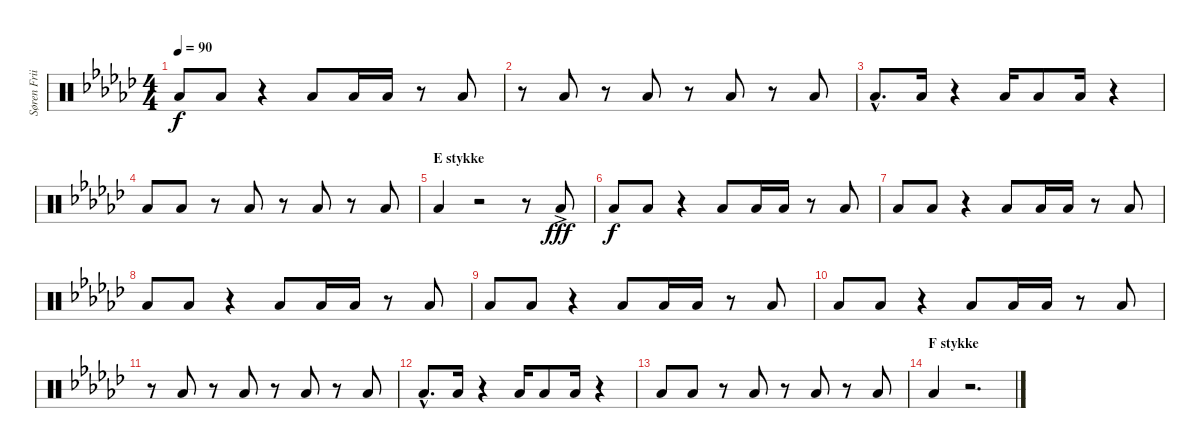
\track ("Søren Friis (Drums)" "Søren Frii") {instrument percussion}
\staff {score}
\articulation defaults
\ts (4 4)
\tempo 90
\clef neutral
\ks gb "Low Floor Tom (hit)".8{dy f} "Low Floor Tom (hit)".8
r.4 "Low Floor Tom (hit)".8 "Low Floor Tom (hit)".16 "Low Floor Tom (hit)".16 r.8 "Low Floor Tom (hit)".8 |
r.8 "Low Floor Tom (hit)".8 r.8 "Low Floor Tom (hit)".8 r.8 "Low Floor Tom (hit)".8 r.8 "Low Floor Tom (hit)".8 |
"Low Floor Tom (hit)"{hac}.8{d} "Low Floor Tom (hit)".16 r.4 "Low Floor Tom (hit)".16 "Low Floor Tom (hit)".8 "Low Floor Tom (hit)".16 r.4 |
"Low Floor Tom (hit)".8 "Low Floor Tom (hit)".8 r.8 "Low Floor Tom (hit)".8 r.8 "Low Floor Tom (hit)".8 r.8 "Low Floor Tom (hit)".8 |
\section ("" "E stykke")
"Low Floor Tom (hit)".4 r.2 r.8 "Low Floor Tom (hit)"{ac}.8{dy fff} |
"Low Floor Tom (hit)".8{dy f} "Low Floor Tom (hit)".8 r.4 "Low Floor Tom (hit)".8 "Low Floor Tom (hit)".16 "Low Floor Tom (hit)".16 r.8 "Low Floor Tom (hit)".8 |
"Low Floor Tom (hit)".8 "Low Floor Tom (hit)".8 r.4 "Low Floor Tom (hit)".8 "Low Floor Tom (hit)".16 "Low Floor Tom (hit)".16 r.8 "Low Floor Tom (hit)".8 |
"Low Floor Tom (hit)".8 "Low Floor Tom (hit)".8 r.4 "Low Floor Tom (hit)".8 "Low Floor Tom (hit)".16 "Low Floor Tom (hit)".16 r.8 "Low Floor Tom (hit)".8 |
"Low Floor Tom (hit)".8 "Low Floor Tom (hit)".8 r.4 "Low Floor Tom (hit)".8 "Low Floor Tom (hit)".16 "Low Floor Tom (hit)".16 r.8 "Low Floor Tom (hit)".8 |
"Low Floor Tom (hit)".8 "Low Floor Tom (hit)".8 r.4 "Low Floor Tom (hit)".8 "Low Floor Tom (hit)".16 "Low Floor Tom (hit)".16 r.8 "Low Floor Tom (hit)".8 |
r.8 "Low Floor Tom (hit)".8 r.8 "Low Floor Tom (hit)".8 r.8 "Low Floor Tom (hit)".8 r.8 "Low Floor Tom (hit)".8 |
"Low Floor Tom (hit)"{hac}.8{d} "Low Floor Tom (hit)".16 r.4 "Low Floor Tom (hit)".16 "Low Floor Tom (hit)".8 "Low Floor Tom (hit)".16 r.4 |
"Low Floor Tom (hit)".8 "Low Floor Tom (hit)".8 r.8 "Low Floor Tom (hit)".8 r.8 "Low Floor Tom (hit)".8 r.8 "Low Floor Tom (hit)".8 |
\section ("" "F stykke")
"Low Floor Tom (hit)".4 r.2{d}
